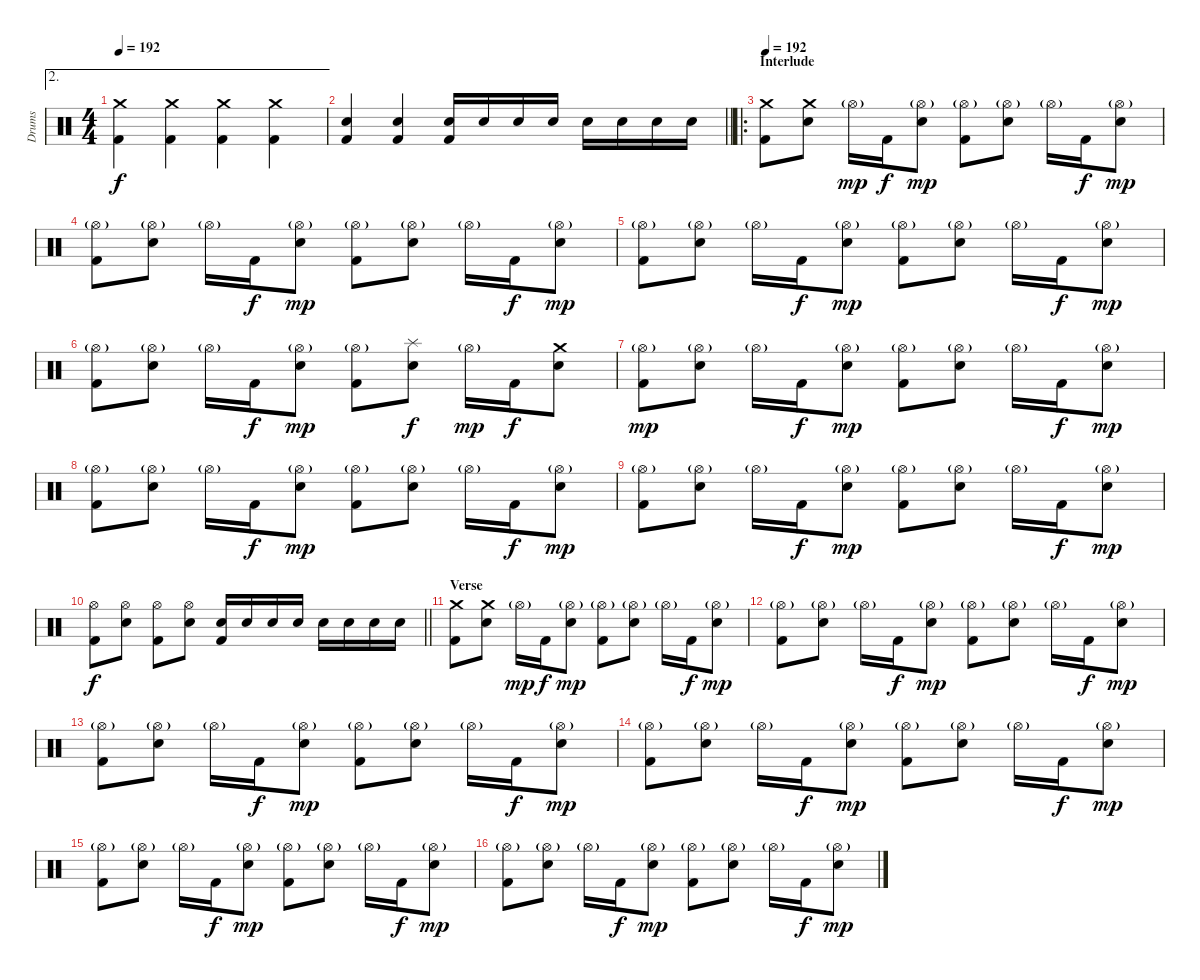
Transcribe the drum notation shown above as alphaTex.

\track ("Drums" "Drums") {instrument percussion}
\staff {score}
\articulation defaults
\ae 2
\ts (4 4)
\tempo 192
\clef neutral
\ks c
("Crash medium (hit)" "Kick (hit) 2").4{dy f} ("Crash medium (hit)" "Kick (hit) 2").4 ("Crash medium (hit)" "Kick (hit) 2").4 ("Crash medium (hit)" "Kick (hit) 2").4 |
\barLineRight lightlight
("Electric Snare (hit)" "Kick (hit) 2").4 ("Electric Snare (hit)" "Kick (hit) 2").4 ("Electric Snare (hit)" "Kick (hit) 2").16 "Electric Snare (hit)".16 "Electric Snare (hit)".16 "Electric Snare (hit)".16 "Electric Snare (hit)".16 "Electric Snare (hit)".16 "Electric Snare (hit)".16 "Electric Snare (hit)".16 |
\ro
\section ("" "Interlude")
\tempo 192
("Crash medium (hit)" "Kick (hit) 2").8 ("Crash medium (hit)" "Electric Snare (hit)").8 "Hi-Hat (open)"{g}.16{dy mp} "Kick (hit) 2".16{dy f} ("Hi-Hat (open)"{g} "Electric Snare (hit)").8{dy mp} ("Hi-Hat (open)"{g} "Kick (hit) 2").8 ("Hi-Hat (open)"{g} "Electric Snare (hit)").8 "Hi-Hat (open)"{g}.16 "Kick (hit) 2".16{dy f} ("Hi-Hat (open)"{g} "Electric Snare (hit)").8{dy mp} |
("Hi-Hat (open)"{g} "Kick (hit) 2").8 ("Hi-Hat (open)"{g} "Electric Snare (hit)").8 "Hi-Hat (open)"{g}.16 "Kick (hit) 2".16{dy f} ("Hi-Hat (open)"{g} "Electric Snare (hit)").8{dy mp} ("Hi-Hat (open)"{g} "Kick (hit) 2").8 ("Hi-Hat (open)"{g} "Electric Snare (hit)").8 "Hi-Hat (open)"{g}.16 "Kick (hit) 2".16{dy f} ("Hi-Hat (open)"{g} "Electric Snare (hit)").8{dy mp} |
("Hi-Hat (open)"{g} "Kick (hit) 2").8 ("Hi-Hat (open)"{g} "Electric Snare (hit)").8 "Hi-Hat (open)"{g}.16 "Kick (hit) 2".16{dy f} ("Hi-Hat (open)"{g} "Electric Snare (hit)").8{dy mp} ("Hi-Hat (open)"{g} "Kick (hit) 2").8 ("Hi-Hat (open)"{g} "Electric Snare (hit)").8 "Hi-Hat (open)"{g}.16 "Kick (hit) 2".16{dy f} ("Hi-Hat (open)"{g} "Electric Snare (hit)").8{dy mp} |
("Hi-Hat (open)"{g} "Kick (hit) 2").8 ("Hi-Hat (open)"{g} "Electric Snare (hit)").8 "Hi-Hat (open)"{g}.16 "Kick (hit) 2".16{dy f} ("Hi-Hat (open)"{g} "Electric Snare (hit)").8{dy mp} ("Hi-Hat (open)"{g} "Kick (hit) 2").8 ("Splash (hit)" "Electric Snare (hit)").8{dy f} "Hi-Hat (open)"{g}.16{dy mp} "Kick (hit) 2".16{dy f} ("Crash medium (hit)" "Electric Snare (hit)").8 |
("Hi-Hat (open)"{g} "Kick (hit) 2").8{dy mp} ("Hi-Hat (open)"{g} "Electric Snare (hit)").8 "Hi-Hat (open)"{g}.16 "Kick (hit) 2".16{dy f} ("Hi-Hat (open)"{g} "Electric Snare (hit)").8{dy mp} ("Hi-Hat (open)"{g} "Kick (hit) 2").8 ("Hi-Hat (open)"{g} "Electric Snare (hit)").8 "Hi-Hat (open)"{g}.16 "Kick (hit) 2".16{dy f} ("Hi-Hat (open)"{g} "Electric Snare (hit)").8{dy mp} |
("Hi-Hat (open)"{g} "Kick (hit) 2").8 ("Hi-Hat (open)"{g} "Electric Snare (hit)").8 "Hi-Hat (open)"{g}.16 "Kick (hit) 2".16{dy f} ("Hi-Hat (open)"{g} "Electric Snare (hit)").8{dy mp} ("Hi-Hat (open)"{g} "Kick (hit) 2").8 ("Hi-Hat (open)"{g} "Electric Snare (hit)").8 "Hi-Hat (open)"{g}.16 "Kick (hit) 2".16{dy f} ("Hi-Hat (open)"{g} "Electric Snare (hit)").8{dy mp} |
("Hi-Hat (open)"{g} "Kick (hit) 2").8 ("Hi-Hat (open)"{g} "Electric Snare (hit)").8 "Hi-Hat (open)"{g}.16 "Kick (hit) 2".16{dy f} ("Hi-Hat (open)"{g} "Electric Snare (hit)").8{dy mp} ("Hi-Hat (open)"{g} "Kick (hit) 2").8 ("Hi-Hat (open)"{g} "Electric Snare (hit)").8 "Hi-Hat (open)"{g}.16 "Kick (hit) 2".16{dy f} ("Hi-Hat (open)"{g} "Electric Snare (hit)").8{dy mp} |
\barLineRight lightlight
("Hi-Hat (open)" "Kick (hit) 2").8{dy f} ("Hi-Hat (open)" "Electric Snare (hit)").8 ("Hi-Hat (open)" "Kick (hit) 2").8 ("Hi-Hat (open)" "Electric Snare (hit)").8 ("Electric Snare (hit)" "Kick (hit) 2").16 "Electric Snare (hit)".16 "Electric Snare (hit)".16 "Electric Snare (hit)".16 "Electric Snare (hit)".16 "Electric Snare (hit)".16 "Electric Snare (hit)".16 "Electric Snare (hit)".16 |
\section ("" "Verse")
("Crash medium (hit)" "Kick (hit) 2").8 ("Crash medium (hit)" "Electric Snare (hit)").8 "Hi-Hat (open)"{g}.16{dy mp} "Kick (hit) 2".16{dy f} ("Hi-Hat (open)"{g} "Electric Snare (hit)").8{dy mp} ("Hi-Hat (open)"{g} "Kick (hit) 2").8 ("Hi-Hat (open)"{g} "Electric Snare (hit)").8 "Hi-Hat (open)"{g}.16 "Kick (hit) 2".16{dy f} ("Hi-Hat (open)"{g} "Electric Snare (hit)").8{dy mp} |
("Hi-Hat (open)"{g} "Kick (hit) 2").8 ("Hi-Hat (open)"{g} "Electric Snare (hit)").8 "Hi-Hat (open)"{g}.16 "Kick (hit) 2".16{dy f} ("Hi-Hat (open)"{g} "Electric Snare (hit)").8{dy mp} ("Hi-Hat (open)"{g} "Kick (hit) 2").8 ("Hi-Hat (open)"{g} "Electric Snare (hit)").8 "Hi-Hat (open)"{g}.16 "Kick (hit) 2".16{dy f} ("Hi-Hat (open)"{g} "Electric Snare (hit)").8{dy mp} |
("Hi-Hat (open)"{g} "Kick (hit) 2").8 ("Hi-Hat (open)"{g} "Electric Snare (hit)").8 "Hi-Hat (open)"{g}.16 "Kick (hit) 2".16{dy f} ("Hi-Hat (open)"{g} "Electric Snare (hit)").8{dy mp} ("Hi-Hat (open)"{g} "Kick (hit) 2").8 ("Hi-Hat (open)"{g} "Electric Snare (hit)").8 "Hi-Hat (open)"{g}.16 "Kick (hit) 2".16{dy f} ("Hi-Hat (open)"{g} "Electric Snare (hit)").8{dy mp} |
("Hi-Hat (open)"{g} "Kick (hit) 2").8 ("Hi-Hat (open)"{g} "Electric Snare (hit)").8 "Hi-Hat (open)"{g}.16 "Kick (hit) 2".16{dy f} ("Hi-Hat (open)"{g} "Electric Snare (hit)").8{dy mp} ("Hi-Hat (open)"{g} "Kick (hit) 2").8 ("Hi-Hat (open)"{g} "Electric Snare (hit)").8 "Hi-Hat (open)"{g}.16 "Kick (hit) 2".16{dy f} ("Hi-Hat (open)"{g} "Electric Snare (hit)").8{dy mp} |
("Hi-Hat (open)"{g} "Kick (hit) 2").8 ("Hi-Hat (open)"{g} "Electric Snare (hit)").8 "Hi-Hat (open)"{g}.16 "Kick (hit) 2".16{dy f} ("Hi-Hat (open)"{g} "Electric Snare (hit)").8{dy mp} ("Hi-Hat (open)"{g} "Kick (hit) 2").8 ("Hi-Hat (open)"{g} "Electric Snare (hit)").8 "Hi-Hat (open)"{g}.16 "Kick (hit) 2".16{dy f} ("Hi-Hat (open)"{g} "Electric Snare (hit)").8{dy mp} |
("Hi-Hat (open)"{g} "Kick (hit) 2").8 ("Hi-Hat (open)"{g} "Electric Snare (hit)").8 "Hi-Hat (open)"{g}.16 "Kick (hit) 2".16{dy f} ("Hi-Hat (open)"{g} "Electric Snare (hit)").8{dy mp} ("Hi-Hat (open)"{g} "Kick (hit) 2").8 ("Hi-Hat (open)"{g} "Electric Snare (hit)").8 "Hi-Hat (open)"{g}.16 "Kick (hit) 2".16{dy f} ("Hi-Hat (open)"{g} "Electric Snare (hit)").8{dy mp}
